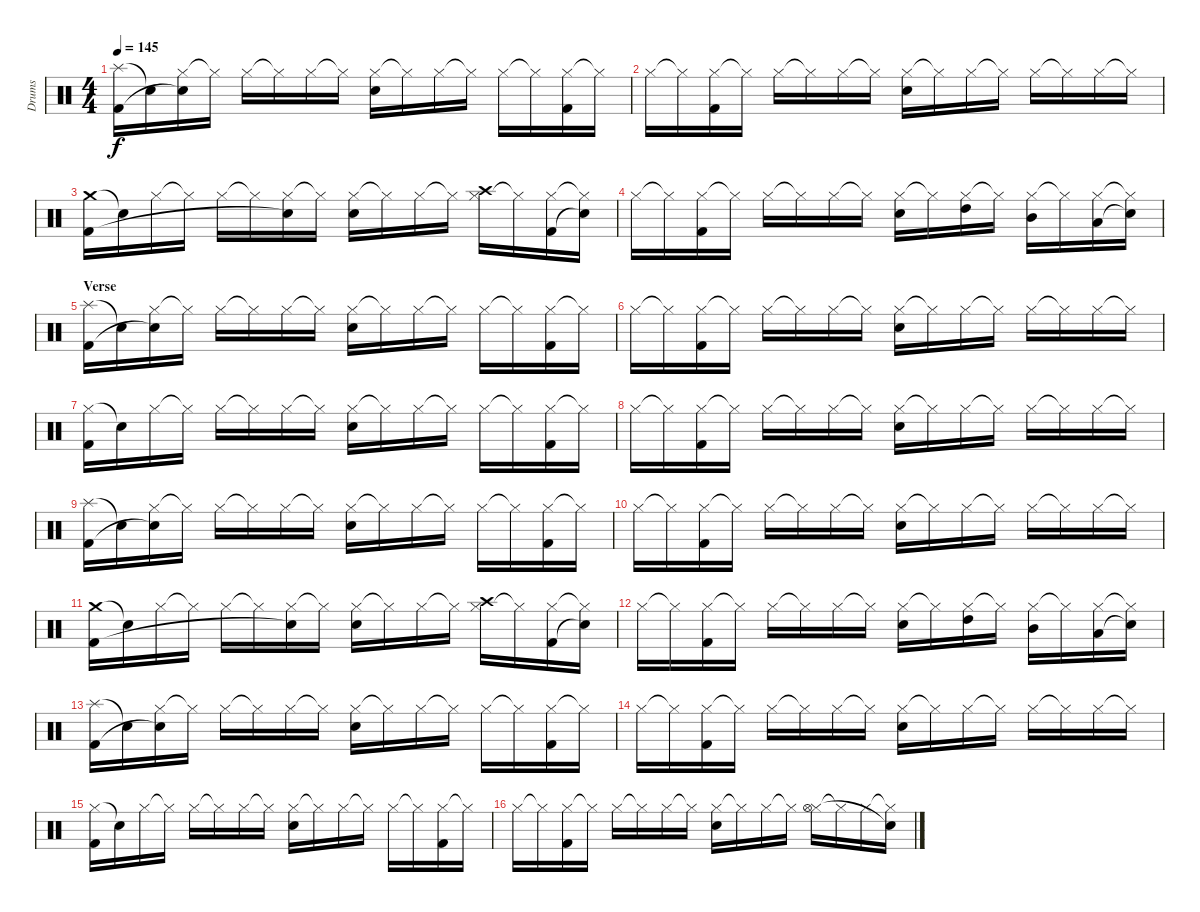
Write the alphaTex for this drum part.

\track ("Drums" "Drums") {instrument percussion}
\staff {score}
\articulation defaults
\ts (4 4)
\tempo 145
\clef neutral
\ks c
("Splash (hit)" "Kick (hit) 2").16{dy f} "Snare (hit)"{t}.16 ("Hi-Hat (closed)" "Snare (hit)"{t}).16 "Hi-Hat (closed)"{t}.16 "Hi-Hat (closed)".16 "Hi-Hat (closed)"{t}.16 "Hi-Hat (closed)".16 "Hi-Hat (closed)"{t}.16 ("Hi-Hat (closed)" "Snare (hit) 2").16 "Hi-Hat (closed)"{t}.16 "Hi-Hat (closed)".16 "Hi-Hat (closed)"{t}.16 "Hi-Hat (closed)".16 "Hi-Hat (closed)"{t}.16 ("Hi-Hat (closed)" "Kick (hit) 2").16 "Hi-Hat (closed)"{t}.16 |
"Hi-Hat (closed)".16 "Hi-Hat (closed)"{t}.16 ("Hi-Hat (closed)" "Kick (hit) 2").16 "Hi-Hat (closed)"{t}.16 "Hi-Hat (closed)".16 "Hi-Hat (closed)"{t}.16 "Hi-Hat (closed)".16 "Hi-Hat (closed)"{t}.16 ("Hi-Hat (closed)" "Snare (hit) 2").16 "Hi-Hat (closed)"{t}.16 "Hi-Hat (closed)".16 "Hi-Hat (closed)"{t}.16 "Hi-Hat (closed)".16 "Hi-Hat (closed)"{t}.16 "Hi-Hat (closed)".16 "Hi-Hat (closed)"{t}.16 |
("Crash medium (hit)" "Kick (hit) 2").16 "Snare (hit)"{t}.16 "Hi-Hat (closed)".16 "Hi-Hat (closed)"{t}.16 "Hi-Hat (closed)".16 "Hi-Hat (closed)"{t}.16 ("Hi-Hat (closed)" "Snare (hit)"{t}).16 "Hi-Hat (closed)"{t}.16 ("Hi-Hat (closed)" "Snare (hit) 2").16 "Hi-Hat (closed)"{t}.16 "Hi-Hat (closed)".16 "Hi-Hat (closed)"{t}.16 ("Hi-Hat (closed)" "Crash high (hit)").16 "Hi-Hat (closed)"{t}.16 ("Hi-Hat (closed)" "Kick (hit) 2").16 ("Hi-Hat (closed)"{t} "Snare (hit)"{t}).16 |
"Hi-Hat (closed)".16 "Hi-Hat (closed)"{t}.16 ("Hi-Hat (closed)" "Kick (hit) 2").16 "Hi-Hat (closed)"{t}.16 "Hi-Hat (closed)".16 "Hi-Hat (closed)"{t}.16 "Hi-Hat (closed)".16 "Hi-Hat (closed)"{t}.16 ("Hi-Hat (closed)" "Snare (hit) 2").16 "Hi-Hat (closed)"{t}.16 ("Hi-Hat (closed)" "High Tom (hit)").16 "Hi-Hat (closed)"{t}.16 ("Hi-Hat (closed)" "Mid Tom (hit)").16 "Hi-Hat (closed)"{t}.16 ("Hi-Hat (closed)" "Low Tom (hit)").16 ("Hi-Hat (closed)"{t} "Snare (hit)"{t}).16 |
\section ("" "Verse")
("Splash (hit)" "Kick (hit) 2").16 "Snare (hit)"{t}.16 ("Hi-Hat (closed)" "Snare (hit)"{t}).16 "Hi-Hat (closed)"{t}.16 "Hi-Hat (closed)".16 "Hi-Hat (closed)"{t}.16 "Hi-Hat (closed)".16 "Hi-Hat (closed)"{t}.16 ("Hi-Hat (closed)" "Snare (hit) 2").16 "Hi-Hat (closed)"{t}.16 "Hi-Hat (closed)".16 "Hi-Hat (closed)"{t}.16 "Hi-Hat (closed)".16 "Hi-Hat (closed)"{t}.16 ("Hi-Hat (closed)" "Kick (hit) 2").16 "Hi-Hat (closed)"{t}.16 |
"Hi-Hat (closed)".16 "Hi-Hat (closed)"{t}.16 ("Hi-Hat (closed)" "Kick (hit) 2").16 "Hi-Hat (closed)"{t}.16 "Hi-Hat (closed)".16 "Hi-Hat (closed)"{t}.16 "Hi-Hat (closed)".16 "Hi-Hat (closed)"{t}.16 ("Hi-Hat (closed)" "Snare (hit) 2").16 "Hi-Hat (closed)"{t}.16 "Hi-Hat (closed)".16 "Hi-Hat (closed)"{t}.16 "Hi-Hat (closed)".16 "Hi-Hat (closed)"{t}.16 "Hi-Hat (closed)".16 "Hi-Hat (closed)"{t}.16 |
("Hi-Hat (closed)" "Kick (hit) 2").16 "Snare (hit)"{t}.16 "Hi-Hat (closed)".16 "Hi-Hat (closed)"{t}.16 "Hi-Hat (closed)".16 "Hi-Hat (closed)"{t}.16 "Hi-Hat (closed)".16 "Hi-Hat (closed)"{t}.16 ("Hi-Hat (closed)" "Snare (hit) 2").16 "Hi-Hat (closed)"{t}.16 "Hi-Hat (closed)".16 "Hi-Hat (closed)"{t}.16 "Hi-Hat (closed)".16 "Hi-Hat (closed)"{t}.16 ("Hi-Hat (closed)" "Kick (hit) 2").16 "Hi-Hat (closed)"{t}.16 |
"Hi-Hat (closed)".16 "Hi-Hat (closed)"{t}.16 ("Hi-Hat (closed)" "Kick (hit) 2").16 "Hi-Hat (closed)"{t}.16 "Hi-Hat (closed)".16 "Hi-Hat (closed)"{t}.16 "Hi-Hat (closed)".16 "Hi-Hat (closed)"{t}.16 ("Hi-Hat (closed)" "Snare (hit) 2").16 "Hi-Hat (closed)"{t}.16 "Hi-Hat (closed)".16 "Hi-Hat (closed)"{t}.16 "Hi-Hat (closed)".16 "Hi-Hat (closed)"{t}.16 "Hi-Hat (closed)".16 "Hi-Hat (closed)"{t}.16 |
("Splash (hit)" "Kick (hit) 2").16 "Snare (hit)"{t}.16 ("Hi-Hat (closed)" "Snare (hit)"{t}).16 "Hi-Hat (closed)"{t}.16 "Hi-Hat (closed)".16 "Hi-Hat (closed)"{t}.16 "Hi-Hat (closed)".16 "Hi-Hat (closed)"{t}.16 ("Hi-Hat (closed)" "Snare (hit) 2").16 "Hi-Hat (closed)"{t}.16 "Hi-Hat (closed)".16 "Hi-Hat (closed)"{t}.16 "Hi-Hat (closed)".16 "Hi-Hat (closed)"{t}.16 ("Hi-Hat (closed)" "Kick (hit) 2").16 "Hi-Hat (closed)"{t}.16 |
"Hi-Hat (closed)".16 "Hi-Hat (closed)"{t}.16 ("Hi-Hat (closed)" "Kick (hit) 2").16 "Hi-Hat (closed)"{t}.16 "Hi-Hat (closed)".16 "Hi-Hat (closed)"{t}.16 "Hi-Hat (closed)".16 "Hi-Hat (closed)"{t}.16 ("Hi-Hat (closed)" "Snare (hit) 2").16 "Hi-Hat (closed)"{t}.16 "Hi-Hat (closed)".16 "Hi-Hat (closed)"{t}.16 "Hi-Hat (closed)".16 "Hi-Hat (closed)"{t}.16 "Hi-Hat (closed)".16 "Hi-Hat (closed)"{t}.16 |
("Crash medium (hit)" "Kick (hit) 2").16 "Snare (hit)"{t}.16 "Hi-Hat (closed)".16 "Hi-Hat (closed)"{t}.16 "Hi-Hat (closed)".16 "Hi-Hat (closed)"{t}.16 ("Hi-Hat (closed)" "Snare (hit)"{t}).16 "Hi-Hat (closed)"{t}.16 ("Hi-Hat (closed)" "Snare (hit) 2").16 "Hi-Hat (closed)"{t}.16 "Hi-Hat (closed)".16 "Hi-Hat (closed)"{t}.16 ("Hi-Hat (closed)" "Crash high (hit)").16 "Hi-Hat (closed)"{t}.16 ("Hi-Hat (closed)" "Kick (hit) 2").16 ("Hi-Hat (closed)"{t} "Snare (hit)"{t}).16 |
"Hi-Hat (closed)".16 "Hi-Hat (closed)"{t}.16 ("Hi-Hat (closed)" "Kick (hit) 2").16 "Hi-Hat (closed)"{t}.16 "Hi-Hat (closed)".16 "Hi-Hat (closed)"{t}.16 "Hi-Hat (closed)".16 "Hi-Hat (closed)"{t}.16 ("Hi-Hat (closed)" "Snare (hit) 2").16 "Hi-Hat (closed)"{t}.16 ("Hi-Hat (closed)" "High Tom (hit)").16 "Hi-Hat (closed)"{t}.16 ("Hi-Hat (closed)" "Mid Tom (hit)").16 "Hi-Hat (closed)"{t}.16 ("Hi-Hat (closed)" "Low Tom (hit)").16 ("Hi-Hat (closed)"{t} "Snare (hit)"{t}).16 |
("Splash (hit)" "Kick (hit) 2").16 "Snare (hit)"{t}.16 ("Hi-Hat (closed)" "Snare (hit)"{t}).16 "Hi-Hat (closed)"{t}.16 "Hi-Hat (closed)".16 "Hi-Hat (closed)"{t}.16 "Hi-Hat (closed)".16 "Hi-Hat (closed)"{t}.16 ("Hi-Hat (closed)" "Snare (hit) 2").16 "Hi-Hat (closed)"{t}.16 "Hi-Hat (closed)".16 "Hi-Hat (closed)"{t}.16 "Hi-Hat (closed)".16 "Hi-Hat (closed)"{t}.16 ("Hi-Hat (closed)" "Kick (hit) 2").16 "Hi-Hat (closed)"{t}.16 |
"Hi-Hat (closed)".16 "Hi-Hat (closed)"{t}.16 ("Hi-Hat (closed)" "Kick (hit) 2").16 "Hi-Hat (closed)"{t}.16 "Hi-Hat (closed)".16 "Hi-Hat (closed)"{t}.16 "Hi-Hat (closed)".16 "Hi-Hat (closed)"{t}.16 ("Hi-Hat (closed)" "Snare (hit) 2").16 "Hi-Hat (closed)"{t}.16 "Hi-Hat (closed)".16 "Hi-Hat (closed)"{t}.16 "Hi-Hat (closed)".16 "Hi-Hat (closed)"{t}.16 "Hi-Hat (closed)".16 "Hi-Hat (closed)"{t}.16 |
("Hi-Hat (closed)" "Kick (hit) 2").16 "Snare (hit)"{t}.16 "Hi-Hat (closed)".16 "Hi-Hat (closed)"{t}.16 "Hi-Hat (closed)".16 "Hi-Hat (closed)"{t}.16 "Hi-Hat (closed)".16 "Hi-Hat (closed)"{t}.16 ("Hi-Hat (closed)" "Snare (hit) 2").16 "Hi-Hat (closed)"{t}.16 "Hi-Hat (closed)".16 "Hi-Hat (closed)"{t}.16 "Hi-Hat (closed)".16 "Hi-Hat (closed)"{t}.16 ("Hi-Hat (closed)" "Kick (hit) 2").16 "Hi-Hat (closed)"{t}.16 |
"Hi-Hat (closed)".16 "Hi-Hat (closed)"{t}.16 ("Hi-Hat (closed)" "Kick (hit) 2").16 "Hi-Hat (closed)"{t}.16 "Hi-Hat (closed)".16 "Hi-Hat (closed)"{t}.16 "Hi-Hat (closed)".16 "Hi-Hat (closed)"{t}.16 ("Hi-Hat (closed)" "Snare (hit) 2").16 "Hi-Hat (closed)"{t}.16 "Hi-Hat (closed)".16 "Hi-Hat (closed)"{t}.16 ("Hi-Hat (closed)" "Hi-Hat (open)").16 "Hi-Hat (closed)"{t}.16 "Hi-Hat (closed)".16 ("Hi-Hat (closed)"{t} "Snare (hit)"{t}).16
